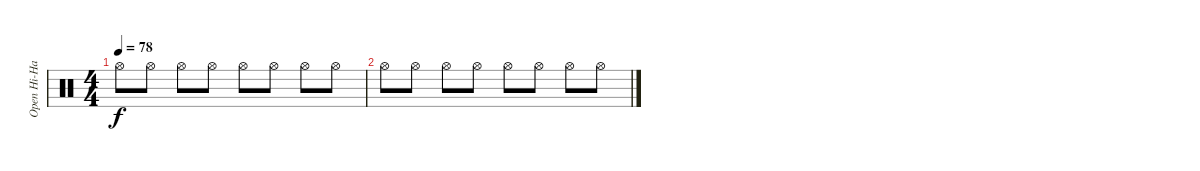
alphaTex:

\track ("Open Hi-Hat" "Open Hi-Ha") {instrument percussion}
\staff {score}
\articulation defaults
\ts (4 4)
\tempo 78
\clef neutral
\ks c "Hi-Hat (open)".8{dy f} "Hi-Hat (open)".8 "Hi-Hat (open)".8 "Hi-Hat (open)".8 "Hi-Hat (open)".8 "Hi-Hat (open)".8 "Hi-Hat (open)".8 "Hi-Hat (open)".8
|
"Hi-Hat (open)".8 "Hi-Hat (open)".8 "Hi-Hat (open)".8 "Hi-Hat (open)".8 "Hi-Hat (open)".8 "Hi-Hat (open)".8 "Hi-Hat (open)".8 "Hi-Hat (open)".8
